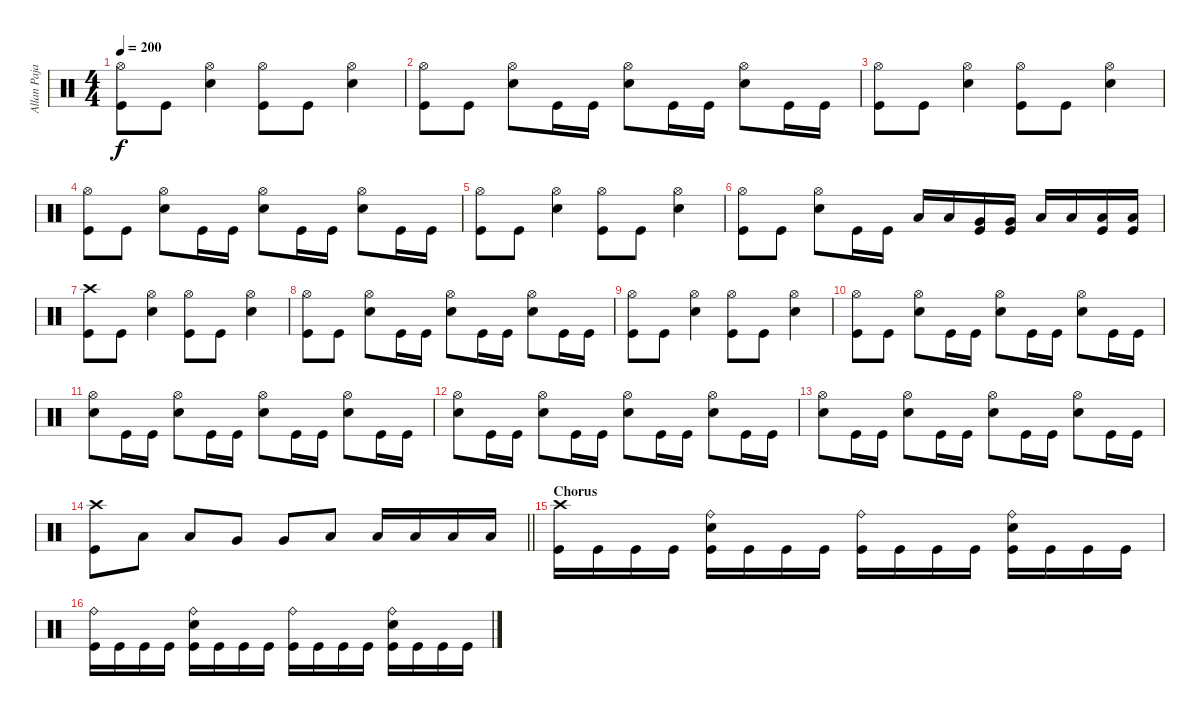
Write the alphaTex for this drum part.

\track ("Allan Pajarin (Drums)" "Allan Paja") {instrument percussion}
\staff {score}
\articulation defaults
\ts (4 4)
\tempo 200
\clef neutral
\ks c
("Kick (hit)" "Hi-Hat (open)").8{dy f} "Kick (hit)".8 ("Hi-Hat (open)" "Electric Snare (hit)").4 ("Hi-Hat (open)" "Kick (hit)").8 "Kick (hit)".8 ("Hi-Hat (open)" "Electric Snare (hit)").4 |
("Kick (hit)" "Hi-Hat (open)").8 "Kick (hit)".8 ("Hi-Hat (open)" "Electric Snare (hit)").8 "Kick (hit)".16 "Kick (hit)".16 ("Hi-Hat (open)" "Electric Snare (hit)").8 "Kick (hit)".16 "Kick (hit)".16 ("Hi-Hat (open)" "Electric Snare (hit)").8 "Kick (hit)".16 "Kick (hit)".16 |
("Kick (hit)" "Hi-Hat (open)").8 "Kick (hit)".8 ("Hi-Hat (open)" "Electric Snare (hit)").4 ("Hi-Hat (open)" "Kick (hit)").8 "Kick (hit)".8 ("Hi-Hat (open)" "Electric Snare (hit)").4 |
("Kick (hit)" "Hi-Hat (open)").8 "Kick (hit)".8 ("Hi-Hat (open)" "Electric Snare (hit)").8 "Kick (hit)".16 "Kick (hit)".16 ("Hi-Hat (open)" "Electric Snare (hit)").8 "Kick (hit)".16 "Kick (hit)".16 ("Hi-Hat (open)" "Electric Snare (hit)").8 "Kick (hit)".16 "Kick (hit)".16 |
("Kick (hit)" "Hi-Hat (open)").8 "Kick (hit)".8 ("Hi-Hat (open)" "Electric Snare (hit)").4 ("Hi-Hat (open)" "Kick (hit)").8 "Kick (hit)".8 ("Hi-Hat (open)" "Electric Snare (hit)").4 |
("Kick (hit)" "Hi-Hat (open)").8 "Kick (hit)".8 ("Hi-Hat (open)" "Electric Snare (hit)").8 "Kick (hit)".16 "Kick (hit)".16 "Low Tom (hit)".16 "Low Tom (hit)".16 ("Very Low Tom (hit)" "Kick (hit)").16 ("Very Low Tom (hit)" "Kick (hit)").16 "Low Floor Tom (hit)".16 "Low Floor Tom (hit)".16 ("Low Floor Tom (hit)" "Kick (hit)").16 ("Low Floor Tom (hit)" "Kick (hit)").16 |
("Crash high (hit)" "Kick (hit)").8 "Kick (hit)".8 ("Hi-Hat (open)" "Electric Snare (hit)").4 ("Hi-Hat (open)" "Kick (hit)").8 "Kick (hit)".8 ("Hi-Hat (open)" "Electric Snare (hit)").4 |
("Hi-Hat (open)" "Kick (hit)").8 "Kick (hit)".8 ("Hi-Hat (open)" "Electric Snare (hit)").8 "Kick (hit)".16 "Kick (hit)".16 ("Hi-Hat (open)" "Electric Snare (hit)").8 "Kick (hit)".16 "Kick (hit)".16 ("Hi-Hat (open)" "Electric Snare (hit)").8 "Kick (hit)".16 "Kick (hit)".16 |
("Hi-Hat (open)" "Kick (hit)").8 "Kick (hit)".8 ("Hi-Hat (open)" "Electric Snare (hit)").4 ("Hi-Hat (open)" "Kick (hit)").8 "Kick (hit)".8 ("Hi-Hat (open)" "Electric Snare (hit)").4 |
("Hi-Hat (open)" "Kick (hit)").8 "Kick (hit)".8 ("Hi-Hat (open)" "Electric Snare (hit)").8 "Kick (hit)".16 "Kick (hit)".16 ("Hi-Hat (open)" "Electric Snare (hit)").8 "Kick (hit)".16 "Kick (hit)".16 ("Hi-Hat (open)" "Electric Snare (hit)").8 "Kick (hit)".16 "Kick (hit)".16 |
("Hi-Hat (open)" "Electric Snare (hit)").8 "Kick (hit)".16 "Kick (hit)".16 ("Hi-Hat (open)" "Electric Snare (hit)").8 "Kick (hit)".16 "Kick (hit)".16 ("Hi-Hat (open)" "Electric Snare (hit)").8 "Kick (hit)".16 "Kick (hit)".16 ("Hi-Hat (open)" "Electric Snare (hit)").8 "Kick (hit)".16 "Kick (hit)".16 |
("Hi-Hat (open)" "Electric Snare (hit)").8 "Kick (hit)".16 "Kick (hit)".16 ("Hi-Hat (open)" "Electric Snare (hit)").8 "Kick (hit)".16 "Kick (hit)".16 ("Hi-Hat (open)" "Electric Snare (hit)").8 "Kick (hit)".16 "Kick (hit)".16 ("Hi-Hat (open)" "Electric Snare (hit)").8 "Kick (hit)".16 "Kick (hit)".16 |
("Hi-Hat (open)" "Electric Snare (hit)").8 "Kick (hit)".16 "Kick (hit)".16 ("Hi-Hat (open)" "Electric Snare (hit)").8 "Kick (hit)".16 "Kick (hit)".16 ("Hi-Hat (open)" "Electric Snare (hit)").8 "Kick (hit)".16 "Kick (hit)".16 ("Hi-Hat (open)" "Electric Snare (hit)").8 "Kick (hit)".16 "Kick (hit)".16 |
\barLineRight lightlight
("Kick (hit)" "Crash high (hit)").8 "Low Tom (hit)".8 "Low Tom (hit)".8 "Very Low Tom (hit)".8 "Very Low Tom (hit)".8 "Low Floor Tom (hit)".8 "Low Floor Tom (hit)".16 "Low Floor Tom (hit)".16 "Low Floor Tom (hit)".16 "Low Floor Tom (hit)".16 |
\section ("" "Chorus")
("Crash high (hit)" "Kick (hit)").16 "Kick (hit)".16 "Kick (hit)".16 "Kick (hit)".16 ("Ride (bell)" "Electric Snare (hit)" "Kick (hit)").16 "Kick (hit)".16 "Kick (hit)".16 "Kick (hit)".16 ("Ride (bell)" "Kick (hit)").16 "Kick (hit)".16 "Kick (hit)".16 "Kick (hit)".16 ("Ride (bell)" "Electric Snare (hit)" "Kick (hit)").16 "Kick (hit)".16 "Kick (hit)".16 "Kick (hit)".16 |
("Ride (bell)" "Kick (hit)").16 "Kick (hit)".16 "Kick (hit)".16 "Kick (hit)".16 ("Ride (bell)" "Electric Snare (hit)" "Kick (hit)").16 "Kick (hit)".16 "Kick (hit)".16 "Kick (hit)".16 ("Ride (bell)" "Kick (hit)").16 "Kick (hit)".16 "Kick (hit)".16 "Kick (hit)".16 ("Ride (bell)" "Electric Snare (hit)" "Kick (hit)").16 "Kick (hit)".16 "Kick (hit)".16 "Kick (hit)".16
